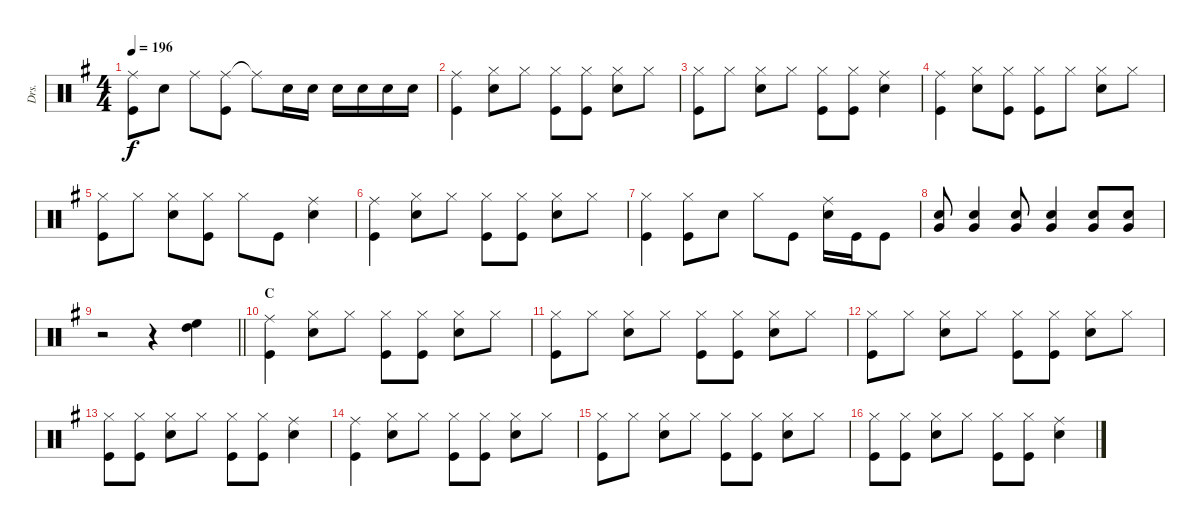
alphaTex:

\track ("Drs." "Drs.") {instrument percussion}
\staff {score}
\articulation defaults
\ts (4 4)
\tempo 196
\clef neutral
\ks g
("Ride (middle)" "Kick (hit)").8{dy f} "Snare (hit) 2".8 "Ride (middle)".8 ("Ride (middle)" "Kick (hit)").8 "Ride (middle)"{t}.8 "Snare (hit) 2".16 "Snare (hit) 2".16 "Snare (hit) 2".16 "Snare (hit) 2".16 "Snare (hit) 2".16 "Snare (hit) 2".16 |
("Ride (middle)" "Kick (hit)").4 ("Hi-Hat (closed)" "Snare (hit) 2").8 "Hi-Hat (closed)".8 ("Hi-Hat (closed)" "Kick (hit)").8 ("Hi-Hat (closed)" "Kick (hit)").8 ("Hi-Hat (closed)" "Snare (hit) 2").8 "Hi-Hat (closed)".8 |
("Hi-Hat (closed)" "Kick (hit)").8 "Hi-Hat (closed)".8 ("Hi-Hat (closed)" "Snare (hit) 2").8 "Hi-Hat (closed)".8 ("Hi-Hat (closed)" "Kick (hit)").8 ("Hi-Hat (closed)" "Kick (hit)").8 ("Ride (middle)" "Snare (hit) 2").4 |
("Ride (middle)" "Kick (hit)").4 ("Hi-Hat (closed)" "Snare (hit) 2").8 ("Hi-Hat (closed)" "Kick (hit)").8 ("Hi-Hat (closed)" "Kick (hit)").8 "Hi-Hat (closed)".8 ("Hi-Hat (closed)" "Snare (hit) 2").8 "Hi-Hat (closed)".8 |
("Hi-Hat (closed)" "Kick (hit)").8 "Hi-Hat (closed)".8 ("Hi-Hat (closed)" "Snare (hit) 2").8 ("Hi-Hat (closed)" "Kick (hit)").8 "Hi-Hat (closed)".8 "Kick (hit)".8 ("Ride (middle)" "Snare (hit) 2").4 |
("Ride (middle)" "Kick (hit)").4 ("Hi-Hat (closed)" "Snare (hit) 2").8 "Hi-Hat (closed)".8 ("Hi-Hat (closed)" "Kick (hit)").8 ("Hi-Hat (closed)" "Kick (hit)").8 ("Hi-Hat (closed)" "Snare (hit) 2").8 "Hi-Hat (closed)".8 |
("Hi-Hat (closed)" "Kick (hit)").4 ("Hi-Hat (closed)" "Kick (hit)").8 "Snare (hit) 2".8 "Hi-Hat (closed)".8 "Kick (hit)".8 ("Ride (middle)" "Snare (hit) 2").16 "Kick (hit)".16 "Kick (hit)".8 |
("Very Low Tom (hit)" "Snare (hit) 2").8 ("Very Low Tom (hit)" "Snare (hit) 2").4 ("Very Low Tom (hit)" "Snare (hit) 2").8 ("Very Low Tom (hit)" "Snare (hit) 2").4 ("Very Low Tom (hit)" "Snare (hit) 2").8 ("Very Low Tom (hit)" "Snare (hit) 2").8 |
\barLineRight lightlight
r.2 r.4 ("High Floor Tom (hit)" "High Tom (hit)").4 |
\section ("" "C")
("Ride (middle)" "Kick (hit)").4 ("Hi-Hat (closed)" "Snare (hit) 2").8 "Hi-Hat (closed)".8 ("Hi-Hat (closed)" "Kick (hit)").8 ("Hi-Hat (closed)" "Kick (hit)").8 ("Hi-Hat (closed)" "Snare (hit) 2").8 "Hi-Hat (closed)".8 |
("Hi-Hat (closed)" "Kick (hit)").8 "Hi-Hat (closed)".8 ("Hi-Hat (closed)" "Snare (hit) 2").8 "Hi-Hat (closed)".8 ("Hi-Hat (closed)" "Kick (hit)").8 ("Hi-Hat (closed)" "Kick (hit)").8 ("Hi-Hat (closed)" "Snare (hit) 2").8 "Hi-Hat (closed)".8 |
("Hi-Hat (closed)" "Kick (hit)").8 "Hi-Hat (closed)".8 ("Hi-Hat (closed)" "Snare (hit) 2").8 "Hi-Hat (closed)".8 ("Hi-Hat (closed)" "Kick (hit)").8 ("Hi-Hat (closed)" "Kick (hit)").8 ("Hi-Hat (closed)" "Snare (hit) 2").8 "Hi-Hat (closed)".8 |
("Hi-Hat (closed)" "Kick (hit)").8 ("Hi-Hat (closed)" "Kick (hit)").8 ("Hi-Hat (closed)" "Snare (hit) 2").8 "Hi-Hat (closed)".8 ("Hi-Hat (closed)" "Kick (hit)").8 ("Hi-Hat (closed)" "Kick (hit)").8 ("Ride (middle)" "Snare (hit) 2").4 |
("Ride (middle)" "Kick (hit)").4 ("Hi-Hat (closed)" "Snare (hit) 2").8 "Hi-Hat (closed)".8 ("Hi-Hat (closed)" "Kick (hit)").8 ("Hi-Hat (closed)" "Kick (hit)").8 ("Hi-Hat (closed)" "Snare (hit) 2").8 "Hi-Hat (closed)".8 |
("Hi-Hat (closed)" "Kick (hit)").8 "Hi-Hat (closed)".8 ("Hi-Hat (closed)" "Snare (hit) 2").8 "Hi-Hat (closed)".8 ("Hi-Hat (closed)" "Kick (hit)").8 ("Hi-Hat (closed)" "Kick (hit)").8 ("Hi-Hat (closed)" "Snare (hit) 2").8 "Hi-Hat (closed)".8 |
("Hi-Hat (closed)" "Kick (hit)").8 ("Hi-Hat (closed)" "Kick (hit)").8 ("Hi-Hat (closed)" "Snare (hit) 2").8 "Hi-Hat (closed)".8 ("Hi-Hat (closed)" "Kick (hit)").8 ("Hi-Hat (closed)" "Kick (hit)").8 ("Ride (middle)" "Snare (hit) 2").4
